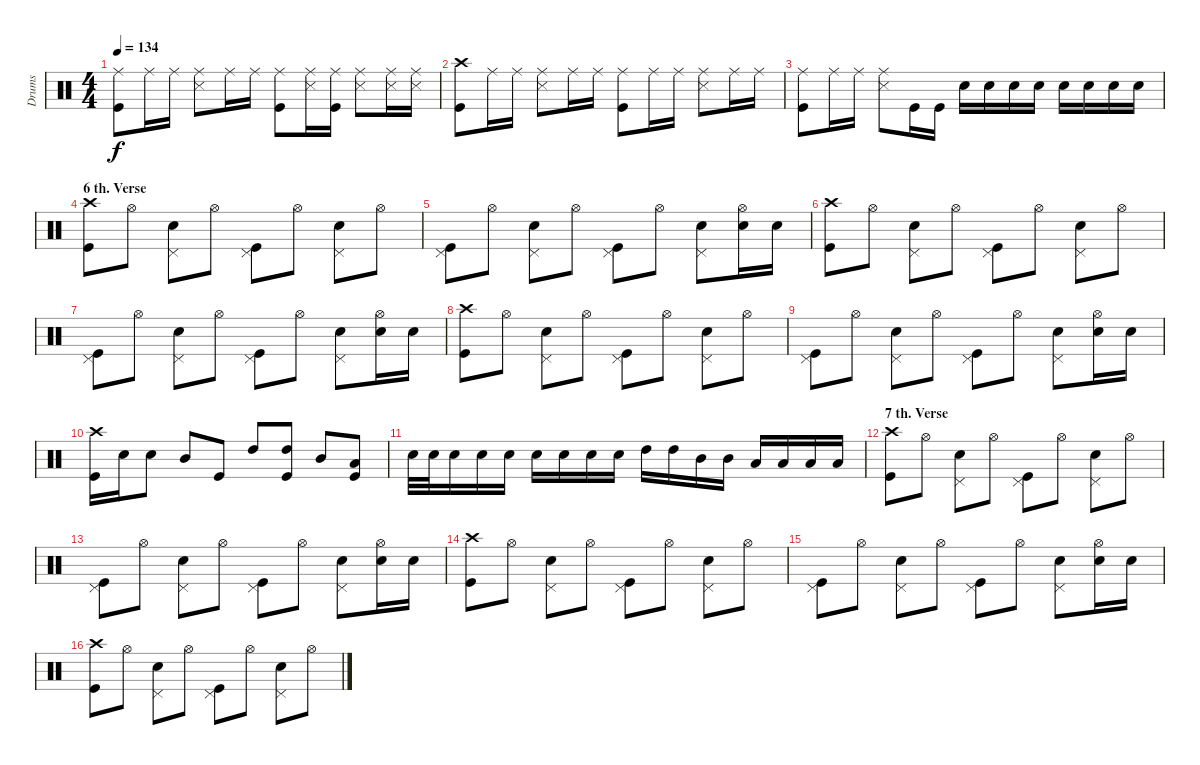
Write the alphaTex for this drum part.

\track ("Drums" "Drums") {instrument percussion}
\staff {score}
\articulation defaults
\ts (4 4)
\tempo 134
\clef neutral
\ks c
("Ride (middle)" "Kick (hit)").8{dy f} "Ride (middle)".16 "Ride (middle)".16 ("Ride (middle)" "Snare (side stick) 3").8 "Ride (middle)".16 "Ride (middle)".16 ("Ride (middle)" "Kick (hit)").8 ("Ride (middle)" "Snare (side stick) 3").16 ("Ride (middle)" "Kick (hit)").16 ("Ride (middle)" "Snare (side stick) 3").8 ("Ride (middle)" "Snare (side stick) 3").16 ("Ride (middle)" "Snare (side stick) 3").16 |
("Crash high (hit)" "Kick (hit)").8 "Ride (middle)".16 "Ride (middle)".16 ("Ride (middle)" "Snare (side stick) 3").8 "Ride (middle)".16 "Ride (middle)".16 ("Ride (middle)" "Kick (hit)").8 "Ride (middle)".16 "Ride (middle)".16 ("Ride (middle)" "Snare (side stick) 3").8 "Ride (middle)".16 "Ride (middle)".16 |
("Ride (middle)" "Kick (hit)").8 "Ride (middle)".16 "Ride (middle)".16 ("Ride (middle)" "Snare (side stick) 3").8 "Kick (hit)".16 "Kick (hit)".16 "Electric Snare (hit)".16 "Electric Snare (hit)".16 "Electric Snare (hit)".16 "Electric Snare (hit)".16 "Electric Snare (hit)".16 "Electric Snare (hit)".16 "Electric Snare (hit)".16 "Electric Snare (hit)".16 |
\section ("" "6 th. Verse")
("Crash high (hit)" "Kick (hit)").8 "Hi-Hat (open)".8 ("Pedal Hi-Hat (hit)" "Electric Snare (hit)").8 "Hi-Hat (open)".8 ("Pedal Hi-Hat (hit)" "Kick (hit)").8 "Hi-Hat (open)".8 ("Pedal Hi-Hat (hit)" "Electric Snare (hit)").8 "Hi-Hat (open)".8 |
("Pedal Hi-Hat (hit)" "Kick (hit)").8 "Hi-Hat (open)".8 ("Pedal Hi-Hat (hit)" "Electric Snare (hit)").8 "Hi-Hat (open)".8 ("Pedal Hi-Hat (hit)" "Kick (hit)").8 "Hi-Hat (open)".8 ("Pedal Hi-Hat (hit)" "Electric Snare (hit)").8 ("Hi-Hat (open)" "Electric Snare (hit)").16 "Electric Snare (hit)".16 |
("Crash high (hit)" "Kick (hit)").8 "Hi-Hat (open)".8 ("Pedal Hi-Hat (hit)" "Electric Snare (hit)").8 "Hi-Hat (open)".8 ("Pedal Hi-Hat (hit)" "Kick (hit)").8 "Hi-Hat (open)".8 ("Pedal Hi-Hat (hit)" "Electric Snare (hit)").8 "Hi-Hat (open)".8 |
("Pedal Hi-Hat (hit)" "Kick (hit)").8 "Hi-Hat (open)".8 ("Pedal Hi-Hat (hit)" "Electric Snare (hit)").8 "Hi-Hat (open)".8 ("Pedal Hi-Hat (hit)" "Kick (hit)").8 "Hi-Hat (open)".8 ("Pedal Hi-Hat (hit)" "Electric Snare (hit)").8 ("Hi-Hat (open)" "Electric Snare (hit)").16 "Electric Snare (hit)".16 |
("Crash high (hit)" "Kick (hit)").8 "Hi-Hat (open)".8 ("Pedal Hi-Hat (hit)" "Electric Snare (hit)").8 "Hi-Hat (open)".8 ("Pedal Hi-Hat (hit)" "Kick (hit)").8 "Hi-Hat (open)".8 ("Pedal Hi-Hat (hit)" "Electric Snare (hit)").8 "Hi-Hat (open)".8 |
("Pedal Hi-Hat (hit)" "Kick (hit)").8 "Hi-Hat (open)".8 ("Pedal Hi-Hat (hit)" "Electric Snare (hit)").8 "Hi-Hat (open)".8 ("Pedal Hi-Hat (hit)" "Kick (hit)").8 "Hi-Hat (open)".8 ("Pedal Hi-Hat (hit)" "Electric Snare (hit)").8 ("Hi-Hat (open)" "Electric Snare (hit)").16 "Electric Snare (hit)".16 |
("Crash high (hit)" "Kick (hit)").16 "Electric Snare (hit)".16 "Electric Snare (hit)".8 "Mid Tom (hit)".8 "Kick (hit)".8 "High Tom (hit)".8 ("High Tom (hit)" "Kick (hit)").8 "Mid Tom (hit)".8 ("Low Tom (hit)" "Kick (hit)").8 |
"Electric Snare (hit)".32 "Electric Snare (hit)".32 "Electric Snare (hit)".16 "Electric Snare (hit)".16 "Electric Snare (hit)".16 "Electric Snare (hit)".16 "Electric Snare (hit)".16 "Electric Snare (hit)".16 "Electric Snare (hit)".16 "High Tom (hit)".16 "High Tom (hit)".16 "Mid Tom (hit)".16 "Mid Tom (hit)".16 "Low Tom (hit)".16 "Low Tom (hit)".16 "Low Tom (hit)".16 "Low Tom (hit)".16 |
\section ("" "7 th. Verse")
("Crash high (hit)" "Kick (hit)").8 "Hi-Hat (open)".8 ("Pedal Hi-Hat (hit)" "Electric Snare (hit)").8 "Hi-Hat (open)".8 ("Pedal Hi-Hat (hit)" "Kick (hit)").8 "Hi-Hat (open)".8 ("Pedal Hi-Hat (hit)" "Electric Snare (hit)").8 "Hi-Hat (open)".8 |
("Pedal Hi-Hat (hit)" "Kick (hit)").8 "Hi-Hat (open)".8 ("Pedal Hi-Hat (hit)" "Electric Snare (hit)").8 "Hi-Hat (open)".8 ("Pedal Hi-Hat (hit)" "Kick (hit)").8 "Hi-Hat (open)".8 ("Pedal Hi-Hat (hit)" "Electric Snare (hit)").8 ("Hi-Hat (open)" "Electric Snare (hit)").16 "Electric Snare (hit)".16 |
("Crash high (hit)" "Kick (hit)").8 "Hi-Hat (open)".8 ("Pedal Hi-Hat (hit)" "Electric Snare (hit)").8 "Hi-Hat (open)".8 ("Pedal Hi-Hat (hit)" "Kick (hit)").8 "Hi-Hat (open)".8 ("Pedal Hi-Hat (hit)" "Electric Snare (hit)").8 "Hi-Hat (open)".8 |
("Pedal Hi-Hat (hit)" "Kick (hit)").8 "Hi-Hat (open)".8 ("Pedal Hi-Hat (hit)" "Electric Snare (hit)").8 "Hi-Hat (open)".8 ("Pedal Hi-Hat (hit)" "Kick (hit)").8 "Hi-Hat (open)".8 ("Pedal Hi-Hat (hit)" "Electric Snare (hit)").8 ("Hi-Hat (open)" "Electric Snare (hit)").16 "Electric Snare (hit)".16 |
("Crash high (hit)" "Kick (hit)").8 "Hi-Hat (open)".8 ("Pedal Hi-Hat (hit)" "Electric Snare (hit)").8 "Hi-Hat (open)".8 ("Pedal Hi-Hat (hit)" "Kick (hit)").8 "Hi-Hat (open)".8 ("Pedal Hi-Hat (hit)" "Electric Snare (hit)").8 "Hi-Hat (open)".8
